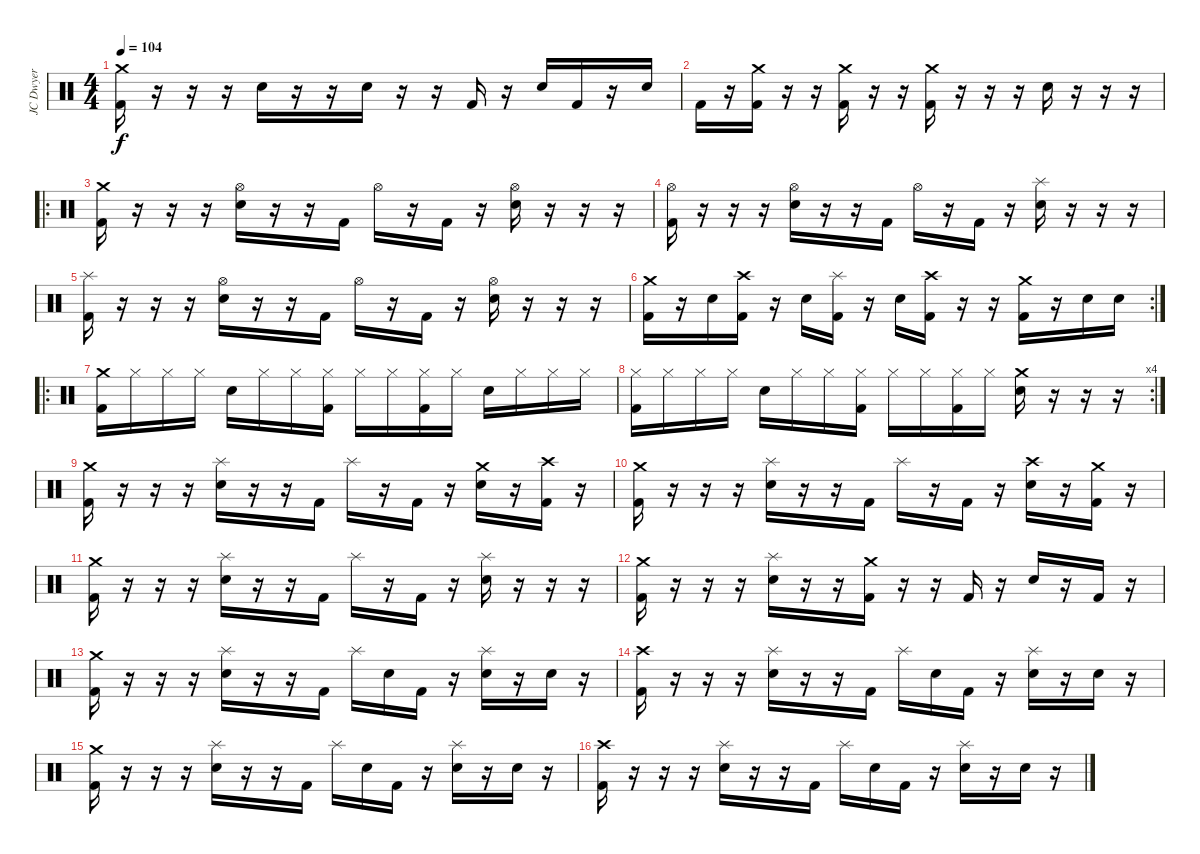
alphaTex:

\track ("JC Dwyer" "JC Dwyer") {instrument percussion}
\staff {score}
\articulation defaults
\ts (4 4)
\tempo 104
\clef neutral
\ks c
("Crash medium (hit)" "Kick (hit) 2").16{dy f} r.16 r.16 r.16 "Electric Snare (hit)".16 r.16 r.16 "Electric Snare (hit)".16 r.16 r.16 "Kick (hit) 2".16 r.16 "Electric Snare (hit)".16 "Kick (hit) 2".16 r.16 "Electric Snare (hit)".16 |
"Kick (hit) 2".16 r.16 ("Crash medium (hit)" "Kick (hit) 2").16 r.16 r.16 ("Crash medium (hit)" "Kick (hit) 2").16 r.16 r.16 ("Crash medium (hit)" "Kick (hit) 2").16 r.16 r.16 r.16 "Electric Snare (hit)".16 r.16 r.16 r.16 |
\ro
("Crash medium (hit)" "Kick (hit) 2").16 r.16 r.16 r.16 ("Hi-Hat (open)" "Electric Snare (hit)").16 r.16 r.16 "Kick (hit) 2".16 "Hi-Hat (open)".16 r.16 "Kick (hit) 2".16 r.16 ("Hi-Hat (open)" "Electric Snare (hit)").16 r.16 r.16 r.16 |
("Hi-Hat (open)" "Kick (hit) 2").16 r.16 r.16 r.16 ("Hi-Hat (open)" "Electric Snare (hit)").16 r.16 r.16 "Kick (hit) 2".16 "Hi-Hat (open)".16 r.16 "Kick (hit) 2".16 r.16 ("Splash (hit)" "Electric Snare (hit)").16 r.16 r.16 r.16 |
("Splash (hit)" "Kick (hit) 2").16 r.16 r.16 r.16 ("Hi-Hat (open)" "Electric Snare (hit)").16 r.16 r.16 "Kick (hit) 2".16 "Hi-Hat (open)".16 r.16 "Kick (hit) 2".16 r.16 ("Hi-Hat (open)" "Electric Snare (hit)").16 r.16 r.16 r.16 |
\rc 2
("Crash medium (hit)" "Kick (hit) 2").16 r.16 "Electric Snare (hit)".16 ("Crash high (hit)" "Kick (hit) 2").16 r.16 "Electric Snare (hit)".16 ("Splash (hit)" "Kick (hit) 2").16 r.16 "Electric Snare (hit)".16 ("Crash high (hit)" "Kick (hit) 2").16 r.16 r.16 ("Crash medium (hit)" "Kick (hit) 2").16 r.16 "Electric Snare (hit)".16 "Electric Snare (hit)".16 |
\ro
("Crash medium (hit)" "Kick (hit) 2").16 "Hi-Hat (closed)".16 "Hi-Hat (closed)".16 "Hi-Hat (closed)".16 "Electric Snare (hit)".16 "Hi-Hat (closed)".16 "Hi-Hat (closed)".16 ("Hi-Hat (closed)" "Kick (hit) 2").16 "Hi-Hat (closed)".16 "Hi-Hat (closed)".16 ("Hi-Hat (closed)" "Kick (hit) 2").16 "Hi-Hat (closed)".16 "Electric Snare (hit)".16 "Hi-Hat (closed)".16 "Hi-Hat (closed)".16 "Hi-Hat (closed)".16 |
\rc 4
("Hi-Hat (closed)" "Kick (hit) 2").16 "Hi-Hat (closed)".16 "Hi-Hat (closed)".16 "Hi-Hat (closed)".16 "Electric Snare (hit)".16 "Hi-Hat (closed)".16 "Hi-Hat (closed)".16 ("Hi-Hat (closed)" "Kick (hit) 2").16 "Hi-Hat (closed)".16 "Hi-Hat (closed)".16 ("Hi-Hat (closed)" "Kick (hit) 2").16 "Hi-Hat (closed)".16 ("Crash medium (hit)" "Electric Snare (hit)").16 r.16 r.16 r.16 |
("Crash medium (hit)" "Kick (hit) 2").16 r.16 r.16 r.16 ("Splash (hit)" "Electric Snare (hit)").16 r.16 r.16 "Kick (hit) 2".16 "Splash (hit)".16 r.16 "Kick (hit) 2".16 r.16 ("Crash medium (hit)" "Electric Snare (hit)").16 r.16 ("Crash high (hit)" "Kick (hit) 2").16 r.16 |
("Crash medium (hit)" "Kick (hit) 2").16 r.16 r.16 r.16 ("Splash (hit)" "Electric Snare (hit)").16 r.16 r.16 "Kick (hit) 2".16 "Splash (hit)".16 r.16 "Kick (hit) 2".16 r.16 ("Crash high (hit)" "Electric Snare (hit)").16 r.16 ("Crash medium (hit)" "Kick (hit) 2").16 r.16 |
("Crash medium (hit)" "Kick (hit) 2").16 r.16 r.16 r.16 ("Splash (hit)" "Electric Snare (hit)").16 r.16 r.16 "Kick (hit) 2".16 "Splash (hit)".16 r.16 "Kick (hit) 2".16 r.16 ("Splash (hit)" "Electric Snare (hit)").16 r.16 r.16 r.16 |
("Crash medium (hit)" "Kick (hit) 2").16 r.16 r.16 r.16 ("Splash (hit)" "Electric Snare (hit)").16 r.16 r.16 ("Crash medium (hit)" "Kick (hit) 2").16 r.16 r.16 "Kick (hit) 2".16 r.16 "Electric Snare (hit)".16 r.16 "Kick (hit) 2".16 r.16 |
("Crash medium (hit)" "Kick (hit) 2").16 r.16 r.16 r.16 ("Splash (hit)" "Electric Snare (hit)").16 r.16 r.16 "Kick (hit) 2".16 "Splash (hit)".16 "Electric Snare (hit)".16 "Kick (hit) 2".16 r.16 ("Splash (hit)" "Electric Snare (hit)").16 r.16 "Electric Snare (hit)".16 r.16 |
("Crash high (hit)" "Kick (hit) 2").16 r.16 r.16 r.16 ("Splash (hit)" "Electric Snare (hit)").16 r.16 r.16 "Kick (hit) 2".16 "Splash (hit)".16 "Electric Snare (hit)".16 "Kick (hit) 2".16 r.16 ("Splash (hit)" "Electric Snare (hit)").16 r.16 "Electric Snare (hit)".16 r.16 |
("Crash medium (hit)" "Kick (hit) 2").16 r.16 r.16 r.16 ("Splash (hit)" "Electric Snare (hit)").16 r.16 r.16 "Kick (hit) 2".16 "Splash (hit)".16 "Electric Snare (hit)".16 "Kick (hit) 2".16 r.16 ("Splash (hit)" "Electric Snare (hit)").16 r.16 "Electric Snare (hit)".16 r.16 |
("Crash high (hit)" "Kick (hit) 2").16 r.16 r.16 r.16 ("Splash (hit)" "Electric Snare (hit)").16 r.16 r.16 "Kick (hit) 2".16 "Splash (hit)".16 "Electric Snare (hit)".16 "Kick (hit) 2".16 r.16 ("Splash (hit)" "Electric Snare (hit)").16 r.16 "Electric Snare (hit)".16 r.16
